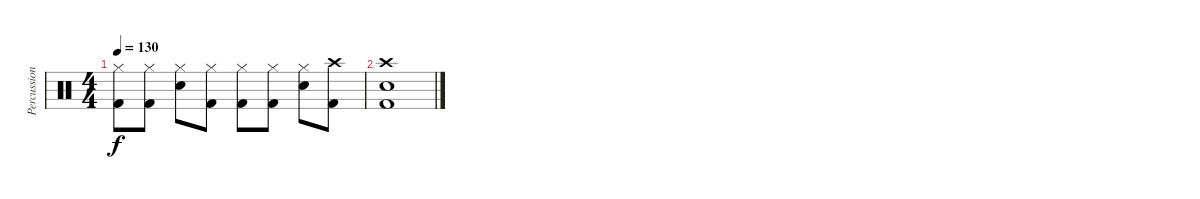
\track ("Percussion" "Percussion") {instrument percussion}
\staff {score}
\articulation defaults
\ts (4 4)
\tempo 130
\clef neutral
\ks c
("Hi-Hat (closed)" "Kick (hit) 2").8{dy f} ("Hi-Hat (closed)" "Kick (hit) 2").8 ("Hi-Hat (closed)" "Electric Snare (hit)").8 ("Hi-Hat (closed)" "Kick (hit) 2").8 ("Hi-Hat (closed)" "Kick (hit) 2").8 ("Hi-Hat (closed)" "Kick (hit) 2").8 ("Hi-Hat (closed)" "Electric Snare (hit)").8 ("Crash high (hit)" "Kick (hit) 2").8 |
("Crash high (hit)" "Electric Snare (hit)" "Kick (hit) 2").1
